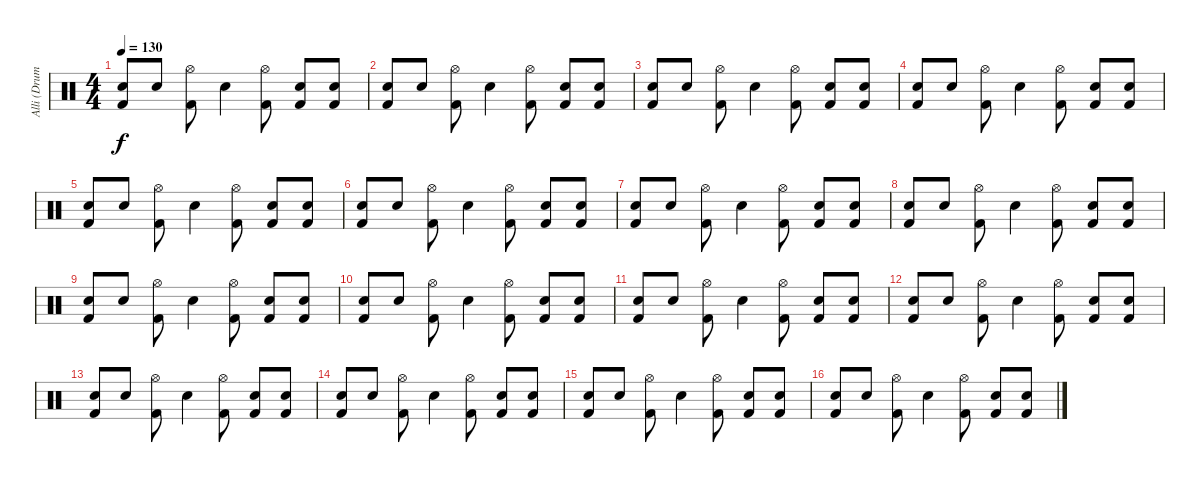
\track ("Alli (Drums)" "Alli (Drum") {instrument percussion}
\staff {score}
\articulation defaults
\ts (4 4)
\tempo 130
\clef neutral
\ks c
("Snare (hit) 2" "Kick (hit) 2").8{dy f} "Snare (hit) 2".8 ("Hi-Hat (open)" "Kick (hit) 2").8 "Snare (hit) 2".4 ("Hi-Hat (open)" "Kick (hit) 2").8 ("Snare (hit) 2" "Kick (hit) 2").8 ("Snare (hit) 2" "Kick (hit) 2").8 |
("Snare (hit) 2" "Kick (hit) 2").8 "Snare (hit) 2".8 ("Hi-Hat (open)" "Kick (hit) 2").8 "Snare (hit) 2".4 ("Hi-Hat (open)" "Kick (hit) 2").8 ("Snare (hit) 2" "Kick (hit) 2").8 ("Snare (hit) 2" "Kick (hit) 2").8 |
("Snare (hit) 2" "Kick (hit) 2").8 "Snare (hit) 2".8 ("Hi-Hat (open)" "Kick (hit) 2").8 "Snare (hit) 2".4 ("Hi-Hat (open)" "Kick (hit) 2").8 ("Snare (hit) 2" "Kick (hit) 2").8 ("Snare (hit) 2" "Kick (hit) 2").8 |
("Snare (hit) 2" "Kick (hit) 2").8 "Snare (hit) 2".8 ("Hi-Hat (open)" "Kick (hit) 2").8 "Snare (hit) 2".4 ("Hi-Hat (open)" "Kick (hit) 2").8 ("Snare (hit) 2" "Kick (hit) 2").8 ("Snare (hit) 2" "Kick (hit) 2").8 |
("Snare (hit) 2" "Kick (hit) 2").8 "Snare (hit) 2".8 ("Hi-Hat (open)" "Kick (hit) 2").8 "Snare (hit) 2".4 ("Hi-Hat (open)" "Kick (hit) 2").8 ("Snare (hit) 2" "Kick (hit) 2").8 ("Snare (hit) 2" "Kick (hit) 2").8 |
("Snare (hit) 2" "Kick (hit) 2").8 "Snare (hit) 2".8 ("Hi-Hat (open)" "Kick (hit) 2").8 "Snare (hit) 2".4 ("Hi-Hat (open)" "Kick (hit) 2").8 ("Snare (hit) 2" "Kick (hit) 2").8 ("Snare (hit) 2" "Kick (hit) 2").8 |
("Snare (hit) 2" "Kick (hit) 2").8 "Snare (hit) 2".8 ("Hi-Hat (open)" "Kick (hit) 2").8 "Snare (hit) 2".4 ("Hi-Hat (open)" "Kick (hit) 2").8 ("Snare (hit) 2" "Kick (hit) 2").8 ("Snare (hit) 2" "Kick (hit) 2").8 |
("Snare (hit) 2" "Kick (hit) 2").8 "Snare (hit) 2".8 ("Hi-Hat (open)" "Kick (hit) 2").8 "Snare (hit) 2".4 ("Hi-Hat (open)" "Kick (hit) 2").8 ("Snare (hit) 2" "Kick (hit) 2").8 ("Snare (hit) 2" "Kick (hit) 2").8 |
("Snare (hit) 2" "Kick (hit) 2").8 "Snare (hit) 2".8 ("Hi-Hat (open)" "Kick (hit) 2").8 "Snare (hit) 2".4 ("Hi-Hat (open)" "Kick (hit) 2").8 ("Snare (hit) 2" "Kick (hit) 2").8 ("Snare (hit) 2" "Kick (hit) 2").8 |
("Snare (hit) 2" "Kick (hit) 2").8 "Snare (hit) 2".8 ("Hi-Hat (open)" "Kick (hit) 2").8 "Snare (hit) 2".4 ("Hi-Hat (open)" "Kick (hit) 2").8 ("Snare (hit) 2" "Kick (hit) 2").8 ("Snare (hit) 2" "Kick (hit) 2").8 |
("Snare (hit) 2" "Kick (hit) 2").8 "Snare (hit) 2".8 ("Hi-Hat (open)" "Kick (hit) 2").8 "Snare (hit) 2".4 ("Hi-Hat (open)" "Kick (hit) 2").8 ("Snare (hit) 2" "Kick (hit) 2").8 ("Snare (hit) 2" "Kick (hit) 2").8 |
("Snare (hit) 2" "Kick (hit) 2").8 "Snare (hit) 2".8 ("Hi-Hat (open)" "Kick (hit) 2").8 "Snare (hit) 2".4 ("Hi-Hat (open)" "Kick (hit) 2").8 ("Snare (hit) 2" "Kick (hit) 2").8 ("Snare (hit) 2" "Kick (hit) 2").8 |
("Snare (hit) 2" "Kick (hit) 2").8 "Snare (hit) 2".8 ("Hi-Hat (open)" "Kick (hit) 2").8 "Snare (hit) 2".4 ("Hi-Hat (open)" "Kick (hit) 2").8 ("Snare (hit) 2" "Kick (hit) 2").8 ("Snare (hit) 2" "Kick (hit) 2").8 |
("Snare (hit) 2" "Kick (hit) 2").8 "Snare (hit) 2".8 ("Hi-Hat (open)" "Kick (hit) 2").8 "Snare (hit) 2".4 ("Hi-Hat (open)" "Kick (hit) 2").8 ("Snare (hit) 2" "Kick (hit) 2").8 ("Snare (hit) 2" "Kick (hit) 2").8 |
("Snare (hit) 2" "Kick (hit) 2").8 "Snare (hit) 2".8 ("Hi-Hat (open)" "Kick (hit) 2").8 "Snare (hit) 2".4 ("Hi-Hat (open)" "Kick (hit) 2").8 ("Snare (hit) 2" "Kick (hit) 2").8 ("Snare (hit) 2" "Kick (hit) 2").8 |
("Snare (hit) 2" "Kick (hit) 2").8 "Snare (hit) 2".8 ("Hi-Hat (open)" "Kick (hit) 2").8 "Snare (hit) 2".4 ("Hi-Hat (open)" "Kick (hit) 2").8 ("Snare (hit) 2" "Kick (hit) 2").8 ("Snare (hit) 2" "Kick (hit) 2").8
